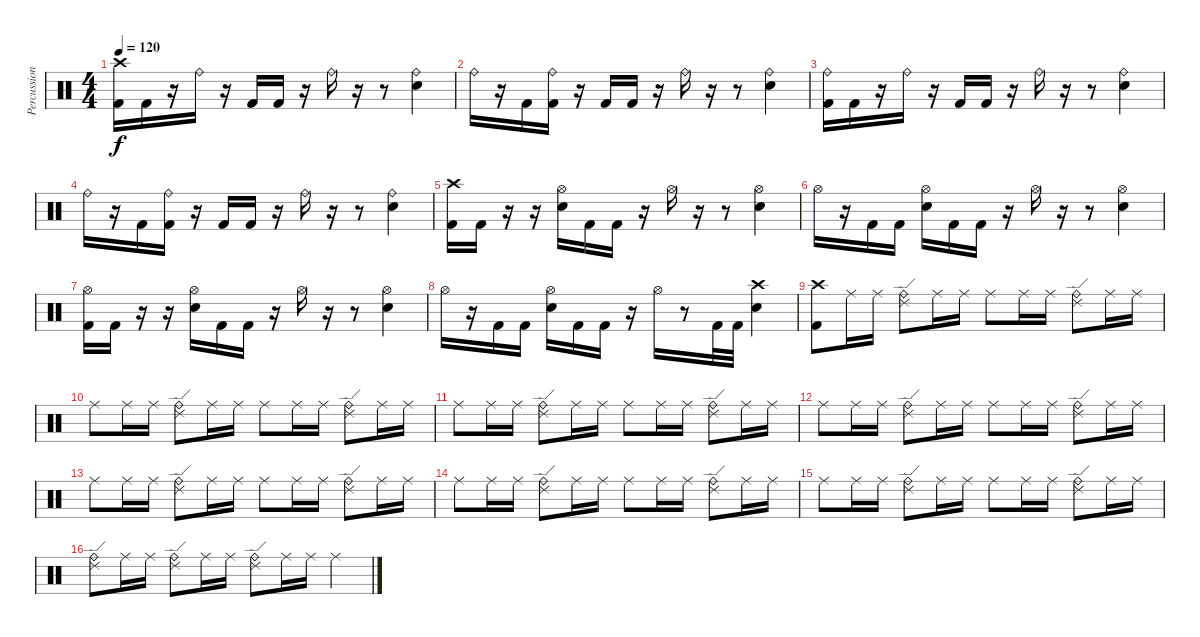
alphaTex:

\track ("Percussion" "Percussion") {instrument percussion}
\staff {score}
\articulation defaults
\ts (4 4)
\tempo 120
\clef neutral
\ks c
("Crash high (hit)" "Kick (hit) 2").16{dy f} "Kick (hit) 2".16 r.16 "Ride (bell)".16 r.16 "Kick (hit) 2".16 "Kick (hit) 2".16 r.16 "Ride (bell)".16 r.16 r.8 ("Ride (bell)" "Electric Snare (hit)").4 |
"Ride (bell)".16 r.16 "Kick (hit) 2".16 ("Ride (bell)" "Kick (hit) 2").16 r.16 "Kick (hit) 2".16 "Kick (hit) 2".16 r.16 "Ride (bell)".16 r.16 r.8 ("Ride (bell)" "Electric Snare (hit)").4 |
("Ride (bell)" "Kick (hit) 2").16 "Kick (hit) 2".16 r.16 "Ride (bell)".16 r.16 "Kick (hit) 2".16 "Kick (hit) 2".16 r.16 "Ride (bell)".16 r.16 r.8 ("Ride (bell)" "Electric Snare (hit)").4 |
"Ride (bell)".16 r.16 "Kick (hit) 2".16 ("Ride (bell)" "Kick (hit) 2").16 r.16 "Kick (hit) 2".16 "Kick (hit) 2".16 r.16 "Ride (bell)".16 r.16 r.8 ("Ride (bell)" "Electric Snare (hit)").4 |
("Crash high (hit)" "Kick (hit) 2").16 "Kick (hit) 2".16 r.16 r.16 ("Hi-Hat (open)" "Electric Snare (hit)").16 "Kick (hit) 2".16 "Kick (hit) 2".16 r.16 "Hi-Hat (open)".16 r.16 r.8 ("Hi-Hat (open)" "Electric Snare (hit)").4 |
"Hi-Hat (open)".16 r.16 "Kick (hit) 2".16 "Kick (hit) 2".16 ("Hi-Hat (open)" "Electric Snare (hit)").16 "Kick (hit) 2".16 "Kick (hit) 2".16 r.16 "Hi-Hat (open)".16 r.16 r.8 ("Hi-Hat (open)" "Electric Snare (hit)").4 |
("Hi-Hat (open)" "Kick (hit) 2").16 "Kick (hit) 2".16 r.16 r.16 ("Hi-Hat (open)" "Electric Snare (hit)").16 "Kick (hit) 2".16 "Kick (hit) 2".16 r.16 "Hi-Hat (open)".16 r.16 r.8 ("Hi-Hat (open)" "Electric Snare (hit)").4 |
"Hi-Hat (open)".16 r.16 "Kick (hit) 2".16 "Kick (hit) 2".16 ("Hi-Hat (open)" "Electric Snare (hit)").16 "Kick (hit) 2".16 "Kick (hit) 2".16 r.16 "Hi-Hat (open)".16 r.8 "Kick (hit) 2".32 "Kick (hit) 2".32 ("Crash high (hit)" "Electric Snare (hit)").4 |
("Crash high (hit)" "Kick (hit) 2").8 "Ride (middle)".16 "Ride (middle)".16 ("Ride (edge) 2" "Ride (bell)").8 "Ride (middle)".16 "Ride (middle)".16 "Ride (middle)".8 "Ride (middle)".16 "Ride (middle)".16 ("Ride (edge) 2" "Ride (bell)").8 "Ride (middle)".16 "Ride (middle)".16 |
"Ride (middle)".8 "Ride (middle)".16 "Ride (middle)".16 ("Ride (edge) 2" "Ride (bell)").8 "Ride (middle)".16 "Ride (middle)".16 "Ride (middle)".8 "Ride (middle)".16 "Ride (middle)".16 ("Ride (edge) 2" "Ride (bell)").8 "Ride (middle)".16 "Ride (middle)".16 |
"Ride (middle)".8 "Ride (middle)".16 "Ride (middle)".16 ("Ride (edge) 2" "Ride (bell)").8 "Ride (middle)".16 "Ride (middle)".16 "Ride (middle)".8 "Ride (middle)".16 "Ride (middle)".16 ("Ride (edge) 2" "Ride (bell)").8 "Ride (middle)".16 "Ride (middle)".16 |
"Ride (middle)".8 "Ride (middle)".16 "Ride (middle)".16 ("Ride (edge) 2" "Ride (bell)").8 "Ride (middle)".16 "Ride (middle)".16 "Ride (middle)".8 "Ride (middle)".16 "Ride (middle)".16 ("Ride (edge) 2" "Ride (bell)").8 "Ride (middle)".16 "Ride (middle)".16 |
"Ride (middle)".8 "Ride (middle)".16 "Ride (middle)".16 ("Ride (edge) 2" "Ride (bell)").8 "Ride (middle)".16 "Ride (middle)".16 "Ride (middle)".8 "Ride (middle)".16 "Ride (middle)".16 ("Ride (edge) 2" "Ride (bell)").8 "Ride (middle)".16 "Ride (middle)".16 |
"Ride (middle)".8 "Ride (middle)".16 "Ride (middle)".16 ("Ride (edge) 2" "Ride (bell)").8 "Ride (middle)".16 "Ride (middle)".16 "Ride (middle)".8 "Ride (middle)".16 "Ride (middle)".16 ("Ride (edge) 2" "Ride (bell)").8 "Ride (middle)".16 "Ride (middle)".16 |
"Ride (middle)".8 "Ride (middle)".16 "Ride (middle)".16 ("Ride (edge) 2" "Ride (bell)").8 "Ride (middle)".16 "Ride (middle)".16 "Ride (middle)".8 "Ride (middle)".16 "Ride (middle)".16 ("Ride (edge) 2" "Ride (bell)").8 "Ride (middle)".16 "Ride (middle)".16 |
("Ride (edge) 2" "Ride (bell)").8 "Ride (middle)".16 "Ride (middle)".16 ("Ride (edge) 2" "Ride (bell)").8 "Ride (middle)".16 "Ride (middle)".16 ("Ride (edge) 2" "Ride (bell)").8 "Ride (middle)".16 "Ride (middle)".16 "Ride (middle)".4
